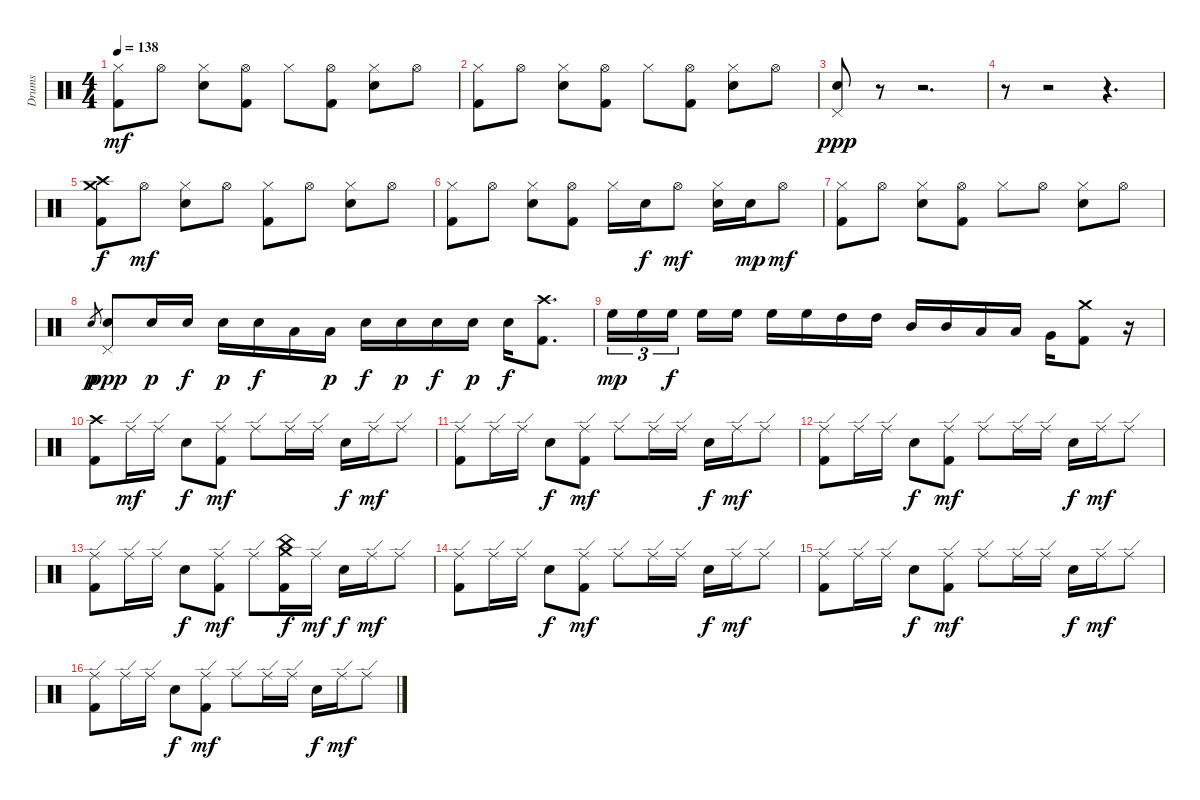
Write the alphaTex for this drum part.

\bracketExtendMode groupsimilarinstruments
\otherSystemsTrackNameOrientation horizontal
\track ("Drumkit" "Drums") {instrument percussion}
\staff {score}
\articulation defaults
\ts (4 4)
\tempo 138
\clef neutral
\ks c
("Hi-Hat (closed)" "Kick (hit) 2").8{dy mf beam Down} "Hi-Hat (open)".8{beam Down} ("Hi-Hat (closed)" "Snare (hit) 2").8{beam Down} ("Hi-Hat (open)" "Kick (hit) 2").8{beam Down} "Hi-Hat (closed)".8{beam Down} ("Hi-Hat (open)" "Kick (hit) 2").8{beam Down} ("Hi-Hat (closed)" "Snare (hit) 2").8{beam Down} "Hi-Hat (open)".8{beam Down} |
("Hi-Hat (closed)" "Kick (hit) 2").8{beam Down} "Hi-Hat (open)".8{beam Down} ("Hi-Hat (closed)" "Snare (hit) 2").8{beam Down} ("Hi-Hat (open)" "Kick (hit) 2").8{beam Down} "Hi-Hat (closed)".8{beam Down} ("Hi-Hat (open)" "Kick (hit) 2").8{beam Down} ("Hi-Hat (closed)" "Snare (hit) 2").8{beam Down} "Hi-Hat (open)".8{beam Down} |
("Pedal Hi-Hat (hit)" "Snare (hit) 2").8{dy ppp beam Up} r.8{beam Up} r.2{d beam Up} |
r.8{beam Down} r.2{beam Down} r.4{d beam Down} |
("Crash high (hit)" "Crash medium (hit)" "Kick (hit) 2").8{dy f beam Down} "Hi-Hat (open)".8{dy mf beam Down} ("Hi-Hat (closed)" "Snare (hit) 2").8{beam Down} "Hi-Hat (open)".8{beam Down} ("Hi-Hat (closed)" "Kick (hit) 2").8{beam Down} "Hi-Hat (open)".8{beam Down} ("Hi-Hat (closed)" "Snare (hit) 2").8{beam Down} "Hi-Hat (open)".8{beam Down} |
("Hi-Hat (closed)" "Kick (hit) 2").8{beam Down} "Hi-Hat (open)".8{beam Down} ("Hi-Hat (closed)" "Snare (hit) 2").8{beam Down} ("Hi-Hat (open)" "Kick (hit) 2").8{beam Down} "Hi-Hat (closed)".16{beam Down} "Snare (hit) 2".16{dy f beam Down} "Hi-Hat (open)".8{dy mf beam Down} ("Hi-Hat (closed)" "Snare (hit) 2").16{beam Down} "Snare (hit) 2".16{dy mp beam Down} "Hi-Hat (open)".8{dy mf beam Down} |
("Hi-Hat (closed)" "Kick (hit) 2").8{beam Down} "Hi-Hat (open)".8{beam Down} ("Hi-Hat (closed)" "Snare (hit) 2").8{beam Down} ("Hi-Hat (open)" "Kick (hit) 2").8{beam Down} "Hi-Hat (closed)".8{beam Down} "Hi-Hat (open)".8{beam Down} ("Hi-Hat (closed)" "Snare (hit) 2").8{beam Down} "Hi-Hat (open)".8{beam Down} |
"Snare (hit) 2".8{gr dy p beam Up} ("Pedal Hi-Hat (hit)" "Snare (hit) 2").8{dy ppp beam Up} "Snare (hit) 2".16{dy p beam Up} "Snare (hit) 2".16{dy f beam Up} "Snare (hit) 2".16{dy p beam Down} "Snare (hit) 2".16{dy f beam Down} "Low Tom (hit)".16{beam Down} "Low Tom (hit)".16{dy p beam Down} "Snare (hit) 2".16{dy f beam Down} "Snare (hit) 2".16{dy p beam Down} "Snare (hit) 2".16{dy f beam Down} "Snare (hit) 2".16{dy p beam Down} "Snare (hit) 2".16{dy f beam Down} ("Crash high (hit)" "Kick (hit) 2").8{d beam Down} |
"High Floor Tom (hit)".16{tu (3 2) dy mp beam Down} "High Floor Tom (hit)".16{tu (3 2) beam Down} "High Floor Tom (hit)".16{tu (3 2) dy f beam Down} "High Floor Tom (hit)".16{beam Down} "High Floor Tom (hit)".16{beam Down} "High Floor Tom (hit)".16{beam Down} "High Floor Tom (hit)".16{beam Down} "High Tom (hit)".16{beam Down} "High Tom (hit)".16{beam Down} "Mid Tom (hit)".16{beam Up} "Mid Tom (hit)".16{beam Up} "Low Tom (hit)".16{beam Up} "Low Tom (hit)".16{beam Up} "Very Low Tom (hit)".16{beam Down} ("Crash medium (hit)" "Kick (hit) 2").8{beam Down} r.16{beam Down} |
("Crash high (hit)" "Kick (hit) 2").8{beam Down} "Ride (edge)".16{dy mf beam Down} "Ride (edge)".16{beam Down} "Snare (hit) 2".8{dy f beam Down} ("Ride (edge)" "Kick (hit) 2").8{dy mf beam Down} "Ride (edge)".8{beam Down} "Ride (edge)".16{beam Down} "Ride (edge)".16{beam Down} "Snare (hit) 2".16{dy f beam Down} "Ride (edge)".16{dy mf beam Down} "Ride (edge)".8{beam Down} |
("Ride (edge)" "Kick (hit) 2").8{beam Down} "Ride (edge)".16{beam Down} "Ride (edge)".16{beam Down} "Snare (hit) 2".8{dy f beam Down} ("Ride (edge)" "Kick (hit) 2").8{dy mf beam Down} "Ride (edge)".8{beam Down} "Ride (edge)".16{beam Down} "Ride (edge)".16{beam Down} "Snare (hit) 2".16{dy f beam Down} "Ride (edge)".16{dy mf beam Down} "Ride (edge)".8{beam Down} |
("Ride (edge)" "Kick (hit) 2").8{beam Down} "Ride (edge)".16{beam Down} "Ride (edge)".16{beam Down} "Snare (hit) 2".8{dy f beam Down} ("Ride (edge)" "Kick (hit) 2").8{dy mf beam Down} "Ride (edge)".8{beam Down} "Ride (edge)".16{beam Down} "Ride (edge)".16{beam Down} "Snare (hit) 2".16{dy f beam Down} "Ride (edge)".16{dy mf beam Down} "Ride (edge)".8{beam Down} |
("Ride (edge)" "Kick (hit) 2").8{beam Down} "Ride (edge)".16{beam Down} "Ride (edge)".16{beam Down} "Snare (hit) 2".8{dy f beam Down} ("Ride (edge)" "Kick (hit) 2").8{dy mf beam Down} "Ride (edge)".8{beam Down} ("Crash medium (hit)" "China (hit)" "Kick (hit) 2").16{dy f beam Down} "Ride (edge)".16{dy mf beam Down} "Snare (hit) 2".16{dy f beam Down} "Ride (edge)".16{dy mf beam Down} "Ride (edge)".8{beam Down} |
("Ride (edge)" "Kick (hit) 2").8{beam Down} "Ride (edge)".16{beam Down} "Ride (edge)".16{beam Down} "Snare (hit) 2".8{dy f beam Down} ("Ride (edge)" "Kick (hit) 2").8{dy mf beam Down} "Ride (edge)".8{beam Down} "Ride (edge)".16{beam Down} "Ride (edge)".16{beam Down} "Snare (hit) 2".16{dy f beam Down} "Ride (edge)".16{dy mf beam Down} "Ride (edge)".8{beam Down} |
("Ride (edge)" "Kick (hit) 2").8{beam Down} "Ride (edge)".16{beam Down} "Ride (edge)".16{beam Down} "Snare (hit) 2".8{dy f beam Down} ("Ride (edge)" "Kick (hit) 2").8{dy mf beam Down} "Ride (edge)".8{beam Down} "Ride (edge)".16{beam Down} "Ride (edge)".16{beam Down} "Snare (hit) 2".16{dy f beam Down} "Ride (edge)".16{dy mf beam Down} "Ride (edge)".8{beam Down} |
("Ride (edge)" "Kick (hit) 2").8{beam Down} "Ride (edge)".16{beam Down} "Ride (edge)".16{beam Down} "Snare (hit) 2".8{dy f beam Down} ("Ride (edge)" "Kick (hit) 2").8{dy mf beam Down} "Ride (edge)".8{beam Down} "Ride (edge)".16{beam Down} "Ride (edge)".16{beam Down} "Snare (hit) 2".16{dy f beam Down} "Ride (edge)".16{dy mf beam Down} "Ride (edge)".8{beam Down}
